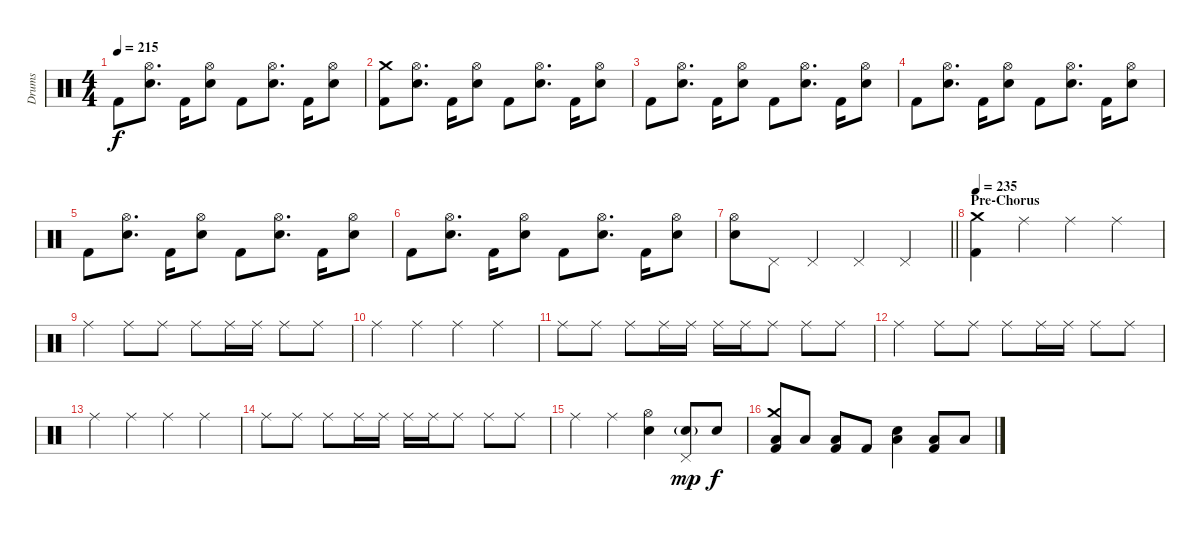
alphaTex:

\track ("Drums" "Drums") {instrument percussion}
\staff {score}
\articulation defaults
\ts (4 4)
\tempo 215
\clef neutral
\ks c "Kick (hit) 2".8{dy f}
("Hi-Hat (open)" "Electric Snare (hit)").8{d} "Kick (hit) 2".16 ("Hi-Hat (open)" "Electric Snare (hit)").8 "Kick (hit) 2".8 ("Hi-Hat (open)" "Electric Snare (hit)").8{d} "Kick (hit) 2".16 ("Hi-Hat (open)" "Electric Snare (hit)").8 |
("Crash medium (hit)" "Kick (hit) 2").8 ("Hi-Hat (open)" "Electric Snare (hit)").8{d} "Kick (hit) 2".16 ("Hi-Hat (open)" "Electric Snare (hit)").8 "Kick (hit) 2".8 ("Hi-Hat (open)" "Electric Snare (hit)").8{d} "Kick (hit) 2".16 ("Hi-Hat (open)" "Electric Snare (hit)").8 |
"Kick (hit) 2".8 ("Hi-Hat (open)" "Electric Snare (hit)").8{d} "Kick (hit) 2".16 ("Hi-Hat (open)" "Electric Snare (hit)").8 "Kick (hit) 2".8 ("Hi-Hat (open)" "Electric Snare (hit)").8{d} "Kick (hit) 2".16 ("Hi-Hat (open)" "Electric Snare (hit)").8 |
"Kick (hit) 2".8 ("Hi-Hat (open)" "Electric Snare (hit)").8{d} "Kick (hit) 2".16 ("Hi-Hat (open)" "Electric Snare (hit)").8 "Kick (hit) 2".8 ("Hi-Hat (open)" "Electric Snare (hit)").8{d} "Kick (hit) 2".16 ("Hi-Hat (open)" "Electric Snare (hit)").8 |
"Kick (hit) 2".8 ("Hi-Hat (open)" "Electric Snare (hit)").8{d} "Kick (hit) 2".16 ("Hi-Hat (open)" "Electric Snare (hit)").8 "Kick (hit) 2".8 ("Hi-Hat (open)" "Electric Snare (hit)").8{d} "Kick (hit) 2".16 ("Hi-Hat (open)" "Electric Snare (hit)").8 |
"Kick (hit) 2".8 ("Hi-Hat (open)" "Electric Snare (hit)").8{d} "Kick (hit) 2".16 ("Hi-Hat (open)" "Electric Snare (hit)").8 "Kick (hit) 2".8 ("Hi-Hat (open)" "Electric Snare (hit)").8{d} "Kick (hit) 2".16 ("Hi-Hat (open)" "Electric Snare (hit)").8 |
\barLineRight lightlight
("Hi-Hat (open)" "Electric Snare (hit)").8 "Pedal Hi-Hat (hit)".8 "Pedal Hi-Hat (hit)".4 "Pedal Hi-Hat (hit)".4 "Pedal Hi-Hat (hit)".4 |
\section ("" "Pre-Chorus")
\tempo 235
("Crash medium (hit)" "Kick (hit) 2").4 "Ride (middle)".4 "Ride (middle)".4 "Ride (middle)".4 |
"Ride (middle)".4 "Ride (middle)".8 "Ride (middle)".8 "Ride (middle)".8 "Ride (middle)".16 "Ride (middle)".16 "Ride (middle)".8 "Ride (middle)".8 |
"Ride (middle)".4 "Ride (middle)".4 "Ride (middle)".4 "Ride (middle)".4 |
"Ride (middle)".8 "Ride (middle)".8 "Ride (middle)".8 "Ride (middle)".16 "Ride (middle)".16 "Ride (middle)".16 "Ride (middle)".16 "Ride (middle)".8 "Ride (middle)".8 "Ride (middle)".8 |
"Ride (middle)".4 "Ride (middle)".8 "Ride (middle)".8 "Ride (middle)".8 "Ride (middle)".16 "Ride (middle)".16 "Ride (middle)".8 "Ride (middle)".8 |
"Ride (middle)".4 "Ride (middle)".4 "Ride (middle)".4 "Ride (middle)".4 |
"Ride (middle)".8 "Ride (middle)".8 "Ride (middle)".8 "Ride (middle)".16 "Ride (middle)".16 "Ride (middle)".16 "Ride (middle)".16 "Ride (middle)".8 "Ride (middle)".8 "Ride (middle)".8 |
"Ride (middle)".4 "Ride (middle)".4 ("Hi-Hat (open)" "Electric Snare (hit)").4 ("Pedal Hi-Hat (hit)" "Electric Snare (hit)"{g}).8{dy mp} "Electric Snare (hit)".8{dy f} |
("Crash medium (hit)" "Low Floor Tom (hit)" "Kick (hit) 2").8 "Low Tom (hit)".8 ("Low Floor Tom (hit)" "Kick (hit) 2").8 "Kick (hit) 2".8 ("Electric Snare (hit)" "Low Floor Tom (hit)").4 ("Low Floor Tom (hit)" "Kick (hit) 2").8 "Low Tom (hit)".8
